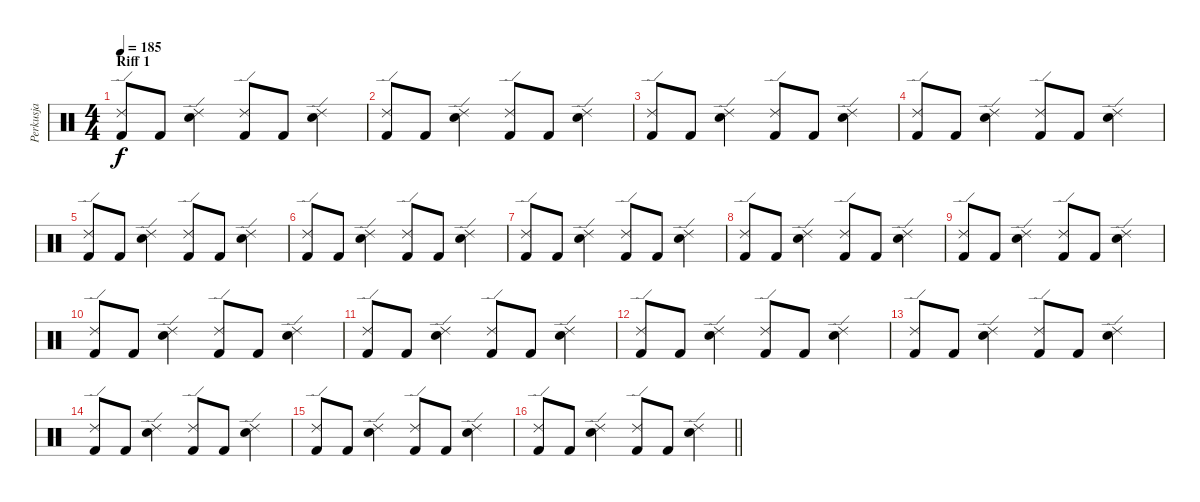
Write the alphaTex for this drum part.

\track ("Perkusja" "Perkusja") {instrument percussion}
\staff {score}
\articulation defaults
\ts (4 4)
\section ("" "Riff 1")
\tempo 185
\clef neutral
\ks c
("Ride (edge) 2" "Kick (hit) 2").8{dy f} "Kick (hit) 2".8 ("Ride (edge) 2" "Electric Snare (hit)").4 ("Ride (edge) 2" "Kick (hit) 2").8 "Kick (hit) 2".8 ("Ride (edge) 2" "Electric Snare (hit)").4 |
("Ride (edge) 2" "Kick (hit) 2").8 "Kick (hit) 2".8 ("Ride (edge) 2" "Electric Snare (hit)").4 ("Ride (edge) 2" "Kick (hit) 2").8 "Kick (hit) 2".8 ("Ride (edge) 2" "Electric Snare (hit)").4 |
("Ride (edge) 2" "Kick (hit) 2").8 "Kick (hit) 2".8 ("Ride (edge) 2" "Electric Snare (hit)").4 ("Ride (edge) 2" "Kick (hit) 2").8 "Kick (hit) 2".8 ("Ride (edge) 2" "Electric Snare (hit)").4 |
("Ride (edge) 2" "Kick (hit) 2").8 "Kick (hit) 2".8 ("Ride (edge) 2" "Electric Snare (hit)").4 ("Ride (edge) 2" "Kick (hit) 2").8 "Kick (hit) 2".8 ("Ride (edge) 2" "Electric Snare (hit)").4 |
("Ride (edge) 2" "Kick (hit) 2").8 "Kick (hit) 2".8 ("Ride (edge) 2" "Electric Snare (hit)").4 ("Ride (edge) 2" "Kick (hit) 2").8 "Kick (hit) 2".8 ("Ride (edge) 2" "Electric Snare (hit)").4 |
("Ride (edge) 2" "Kick (hit) 2").8 "Kick (hit) 2".8 ("Ride (edge) 2" "Electric Snare (hit)").4 ("Ride (edge) 2" "Kick (hit) 2").8 "Kick (hit) 2".8 ("Ride (edge) 2" "Electric Snare (hit)").4 |
("Ride (edge) 2" "Kick (hit) 2").8 "Kick (hit) 2".8 ("Ride (edge) 2" "Electric Snare (hit)").4 ("Ride (edge) 2" "Kick (hit) 2").8 "Kick (hit) 2".8 ("Ride (edge) 2" "Electric Snare (hit)").4 |
("Ride (edge) 2" "Kick (hit) 2").8 "Kick (hit) 2".8 ("Ride (edge) 2" "Electric Snare (hit)").4 ("Ride (edge) 2" "Kick (hit) 2").8 "Kick (hit) 2".8 ("Ride (edge) 2" "Electric Snare (hit)").4 |
("Ride (edge) 2" "Kick (hit) 2").8 "Kick (hit) 2".8 ("Ride (edge) 2" "Electric Snare (hit)").4 ("Ride (edge) 2" "Kick (hit) 2").8 "Kick (hit) 2".8 ("Ride (edge) 2" "Electric Snare (hit)").4 |
("Ride (edge) 2" "Kick (hit) 2").8 "Kick (hit) 2".8 ("Ride (edge) 2" "Electric Snare (hit)").4 ("Ride (edge) 2" "Kick (hit) 2").8 "Kick (hit) 2".8 ("Ride (edge) 2" "Electric Snare (hit)").4 |
("Ride (edge) 2" "Kick (hit) 2").8 "Kick (hit) 2".8 ("Ride (edge) 2" "Electric Snare (hit)").4 ("Ride (edge) 2" "Kick (hit) 2").8 "Kick (hit) 2".8 ("Ride (edge) 2" "Electric Snare (hit)").4 |
("Ride (edge) 2" "Kick (hit) 2").8 "Kick (hit) 2".8 ("Ride (edge) 2" "Electric Snare (hit)").4 ("Ride (edge) 2" "Kick (hit) 2").8 "Kick (hit) 2".8 ("Ride (edge) 2" "Electric Snare (hit)").4 |
("Ride (edge) 2" "Kick (hit) 2").8 "Kick (hit) 2".8 ("Ride (edge) 2" "Electric Snare (hit)").4 ("Ride (edge) 2" "Kick (hit) 2").8 "Kick (hit) 2".8 ("Ride (edge) 2" "Electric Snare (hit)").4 |
("Ride (edge) 2" "Kick (hit) 2").8 "Kick (hit) 2".8 ("Ride (edge) 2" "Electric Snare (hit)").4 ("Ride (edge) 2" "Kick (hit) 2").8 "Kick (hit) 2".8 ("Ride (edge) 2" "Electric Snare (hit)").4 |
("Ride (edge) 2" "Kick (hit) 2").8 "Kick (hit) 2".8 ("Ride (edge) 2" "Electric Snare (hit)").4 ("Ride (edge) 2" "Kick (hit) 2").8 "Kick (hit) 2".8 ("Ride (edge) 2" "Electric Snare (hit)").4 |
\barLineRight lightlight
("Ride (edge) 2" "Kick (hit) 2").8 "Kick (hit) 2".8 ("Ride (edge) 2" "Electric Snare (hit)").4 ("Ride (edge) 2" "Kick (hit) 2").8 "Kick (hit) 2".8 ("Ride (edge) 2" "Electric Snare (hit)").4
